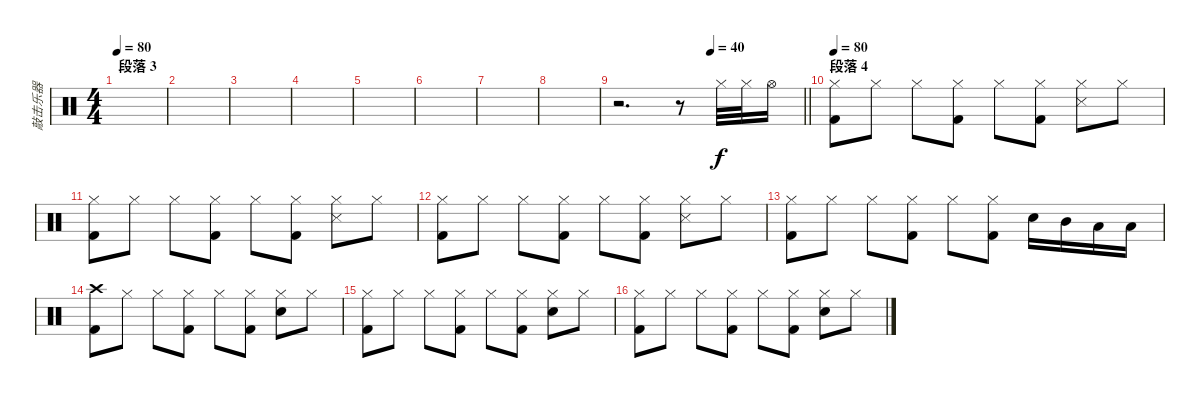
\track ("敲击乐器" "敲击乐器") {instrument percussion}
\staff {score}
\articulation defaults
\ts (4 4)
\section ("" "段落 3")
\tempo 80
\clef neutral
\ks c
|
|
|
|
|
|
|
|
\tempo (40 0.5)
\barLineRight lightlight
r.2{d} r.8 "Hi-Hat (closed)".32 "Hi-Hat (closed)".32 "Hi-Hat (open)".16 |
\section ("" "段落 4")
\tempo 80
("Hi-Hat (closed)" "Kick (hit) 2").8 "Hi-Hat (closed)".8 "Hi-Hat (closed)".8 ("Hi-Hat (closed)" "Kick (hit) 2").8 "Hi-Hat (closed)".8 ("Hi-Hat (closed)" "Kick (hit) 2").8 ("Hi-Hat (closed)" "Snare (side stick) 3").8 "Hi-Hat (closed)".8 |
("Hi-Hat (closed)" "Kick (hit) 2").8 "Hi-Hat (closed)".8 "Hi-Hat (closed)".8 ("Hi-Hat (closed)" "Kick (hit) 2").8 "Hi-Hat (closed)".8 ("Hi-Hat (closed)" "Kick (hit) 2").8 ("Hi-Hat (closed)" "Snare (side stick) 3").8 "Hi-Hat (closed)".8 |
("Hi-Hat (closed)" "Kick (hit) 2").8 "Hi-Hat (closed)".8 "Hi-Hat (closed)".8 ("Hi-Hat (closed)" "Kick (hit) 2").8 "Hi-Hat (closed)".8 ("Hi-Hat (closed)" "Kick (hit) 2").8 ("Hi-Hat (closed)" "Snare (side stick) 3").8 "Hi-Hat (closed)".8 |
("Hi-Hat (closed)" "Kick (hit) 2").8 "Hi-Hat (closed)".8 "Hi-Hat (closed)".8 ("Hi-Hat (closed)" "Kick (hit) 2").8 "Hi-Hat (closed)".8 ("Hi-Hat (closed)" "Kick (hit) 2").8 "Snare (hit) 2".16 "Mid Tom (hit)".16 "Low Tom (hit)".16 "Low Tom (hit)".16 |
("Crash high (hit)" "Kick (hit) 2").8 "Hi-Hat (closed)".8 "Hi-Hat (closed)".8 ("Hi-Hat (closed)" "Kick (hit) 2").8 "Hi-Hat (closed)".8 ("Hi-Hat (closed)" "Kick (hit) 2").8 ("Hi-Hat (closed)" "Snare (hit) 2").8 "Hi-Hat (closed)".8 |
("Hi-Hat (closed)" "Kick (hit) 2").8 "Hi-Hat (closed)".8 "Hi-Hat (closed)".8 ("Hi-Hat (closed)" "Kick (hit) 2").8 "Hi-Hat (closed)".8 ("Hi-Hat (closed)" "Kick (hit) 2").8 ("Hi-Hat (closed)" "Snare (hit) 2").8 "Hi-Hat (closed)".8 |
("Hi-Hat (closed)" "Kick (hit) 2").8 "Hi-Hat (closed)".8 "Hi-Hat (closed)".8 ("Hi-Hat (closed)" "Kick (hit) 2").8 "Hi-Hat (closed)".8 ("Hi-Hat (closed)" "Kick (hit) 2").8 ("Hi-Hat (closed)" "Snare (hit) 2").8 "Hi-Hat (closed)".8
